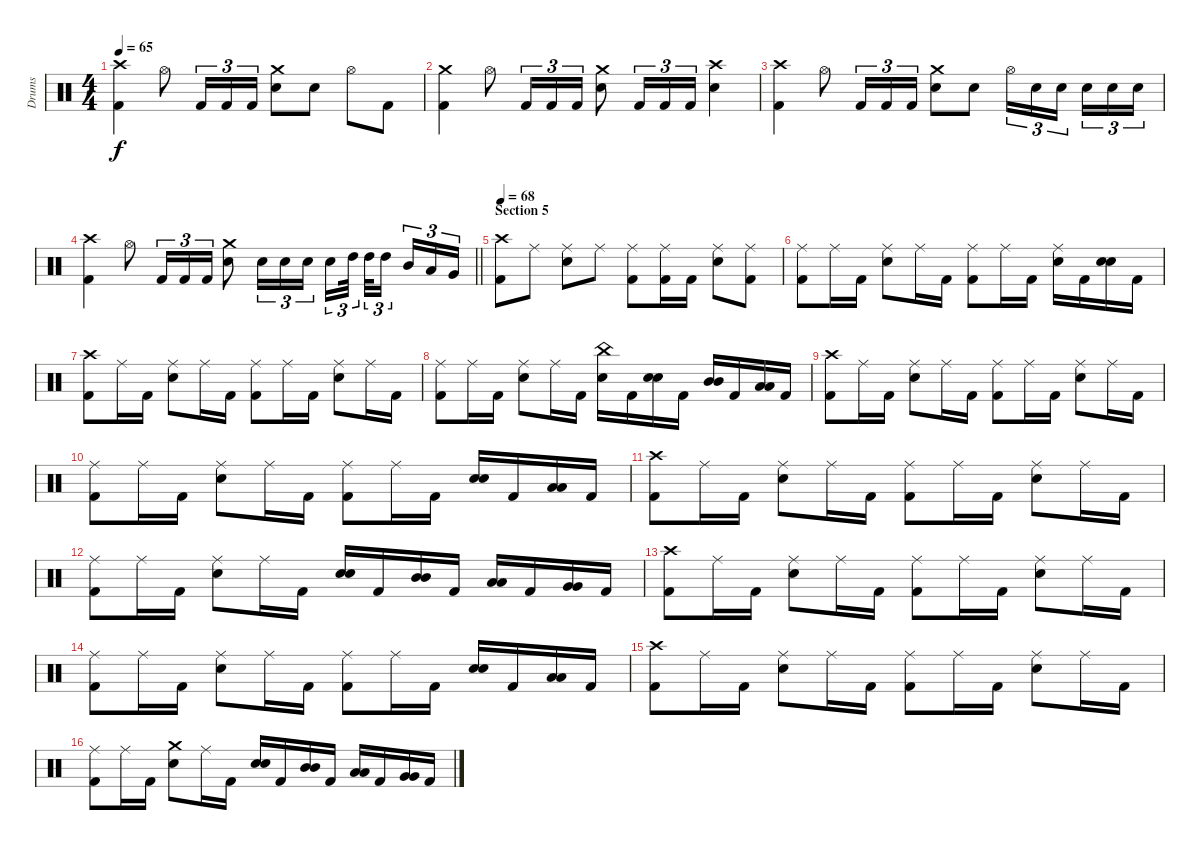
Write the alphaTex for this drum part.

\track ("Drums" "Drums") {instrument percussion}
\staff {score}
\articulation defaults
\ts (4 4)
\tempo 65
\clef neutral
\ks c
("Crash high (hit)" "Kick (hit) 2").4{dy f} "Hi-Hat (open)".8 "Kick (hit) 2".16{tu (3 2)} "Kick (hit) 2".16{tu (3 2)} "Kick (hit) 2".16{tu (3 2)} ("Crash medium (hit)" "Electric Snare (hit)").8 "Electric Snare (hit)".8 "Hi-Hat (open)".8 "Kick (hit) 2".8 |
("Crash medium (hit)" "Kick (hit) 2").4 "Hi-Hat (open)".8 "Kick (hit) 2".16{tu (3 2)} "Kick (hit) 2".16{tu (3 2)} "Kick (hit) 2".16{tu (3 2)} ("Crash medium (hit)" "Electric Snare (hit)").8 "Kick (hit) 2".16{tu (3 2)} "Kick (hit) 2".16{tu (3 2)} "Kick (hit) 2".16{tu (3 2)} ("Crash high (hit)" "Electric Snare (hit)").4 |
("Crash high (hit)" "Kick (hit) 2").4 "Hi-Hat (open)".8 "Kick (hit) 2".16{tu (3 2)} "Kick (hit) 2".16{tu (3 2)} "Kick (hit) 2".16{tu (3 2)} ("Crash medium (hit)" "Electric Snare (hit)").8 "Electric Snare (hit)".8 "Hi-Hat (open)".16{tu (3 2)} "Electric Snare (hit)".16{tu (3 2)} "Electric Snare (hit)".16{tu (3 2) beam splitsecondary} "Electric Snare (hit)".16{tu (3 2)} "Electric Snare (hit)".16{tu (3 2)} "Electric Snare (hit)".16{tu (3 2)} |
\barLineRight lightlight
("Crash high (hit)" "Kick (hit) 2").4 "Hi-Hat (open)".8 "Kick (hit) 2".16{tu (3 2)} "Kick (hit) 2".16{tu (3 2)} "Kick (hit) 2".16{tu (3 2)} ("Crash medium (hit)" "Electric Snare (hit)").8 "Electric Snare (hit)".16{tu (3 2)} "Electric Snare (hit)".16{tu (3 2)} "Electric Snare (hit)".16{tu (3 2)} "Electric Snare (hit)".16{tu (3 2)} "High Tom (hit)".32{tu (3 2) beam splitsecondary} "High Tom (hit)".32{tu (3 2)} "High Tom (hit)".16{tu (3 2) beam splitsecondary} "Mid Tom (hit)".16{tu (3 2)} "Low Tom (hit)".16{tu (3 2)} "Very Low Tom (hit)".16{tu (3 2)} |
\section ("" "Section 5")
\tempo 68
("Crash high (hit)" "Kick (hit) 2").8 "Ride (middle)".8 ("Ride (middle)" "Electric Snare (hit)").8 "Ride (middle)".8 ("Ride (middle)" "Kick (hit) 2").8 ("Ride (middle)" "Kick (hit) 2").16 "Kick (hit) 2".16 ("Ride (middle)" "Electric Snare (hit)").8 ("Ride (middle)" "Kick (hit) 2").8 |
("Ride (middle)" "Kick (hit) 2").8 "Ride (middle)".16 "Kick (hit) 2".16 ("Ride (middle)" "Electric Snare (hit)").8 "Ride (middle)".16 "Kick (hit) 2".16 ("Ride (middle)" "Kick (hit) 2").8 "Ride (middle)".16 "Kick (hit) 2".16 ("Ride (middle)" "Electric Snare (hit)").16 "Kick (hit) 2".16 ("Electric Snare (hit)" "Electric Snare (hit)").16{bu 60} "Kick (hit) 2".16 |
("Crash high (hit)" "Kick (hit) 2").8 "Ride (middle)".16 "Kick (hit) 2".16 ("Ride (middle)" "Electric Snare (hit)").8 "Ride (middle)".16 "Kick (hit) 2".16 ("Ride (middle)" "Kick (hit) 2").8 "Ride (middle)".16 "Kick (hit) 2".16 ("Ride (middle)" "Electric Snare (hit)").8 "Ride (middle)".16 "Kick (hit) 2".16 |
("Ride (middle)" "Kick (hit) 2").8 "Ride (middle)".16 "Kick (hit) 2".16 ("Ride (middle)" "Electric Snare (hit)").8 "Ride (middle)".16 "Kick (hit) 2".16 ("China (hit)" "Electric Snare (hit)").16 "Kick (hit) 2".16 ("Electric Snare (hit)" "Electric Snare (hit)").16{bu 60} "Kick (hit) 2".16 ("Mid Tom (hit)" "Mid Tom (hit)").16{bu 60} "Kick (hit) 2".16 ("Low Tom (hit)" "Low Tom (hit)").16{bu 60} "Kick (hit) 2".16 |
("Crash high (hit)" "Kick (hit) 2").8 "Ride (middle)".16 "Kick (hit) 2".16 ("Ride (middle)" "Electric Snare (hit)").8 "Ride (middle)".16 "Kick (hit) 2".16 ("Ride (middle)" "Kick (hit) 2").8 "Ride (middle)".16 "Kick (hit) 2".16 ("Ride (middle)" "Electric Snare (hit)").8 "Ride (middle)".16 "Kick (hit) 2".16 |
("Ride (middle)" "Kick (hit) 2").8 "Ride (middle)".16 "Kick (hit) 2".16 ("Ride (middle)" "Electric Snare (hit)").8 "Ride (middle)".16 "Kick (hit) 2".16 ("Ride (middle)" "Kick (hit) 2").8 "Ride (middle)".16 "Kick (hit) 2".16 ("Electric Snare (hit)" "Electric Snare (hit)").16{bu 60} "Kick (hit) 2".16 ("Low Tom (hit)" "Low Tom (hit)").16{bu 60} "Kick (hit) 2".16 |
("Crash high (hit)" "Kick (hit) 2").8 "Ride (middle)".16 "Kick (hit) 2".16 ("Ride (middle)" "Electric Snare (hit)").8 "Ride (middle)".16 "Kick (hit) 2".16 ("Ride (middle)" "Kick (hit) 2").8 "Ride (middle)".16 "Kick (hit) 2".16 ("Ride (middle)" "Electric Snare (hit)").8 "Ride (middle)".16 "Kick (hit) 2".16 |
("Ride (middle)" "Kick (hit) 2").8 "Ride (middle)".16 "Kick (hit) 2".16 ("Ride (middle)" "Electric Snare (hit)").8 "Ride (middle)".16 "Kick (hit) 2".16 ("Electric Snare (hit)" "Electric Snare (hit)").16{bu 60} "Kick (hit) 2".16 ("Mid Tom (hit)" "Mid Tom (hit)").16{bu 60} "Kick (hit) 2".16 ("Low Tom (hit)" "Low Tom (hit)").16{bu 60} "Kick (hit) 2".16 ("Very Low Tom (hit)" "Very Low Tom (hit)").16{bu 60} "Kick (hit) 2".16 |
("Crash high (hit)" "Kick (hit) 2").8 "Ride (middle)".16 "Kick (hit) 2".16 ("Ride (middle)" "Electric Snare (hit)").8 "Ride (middle)".16 "Kick (hit) 2".16 ("Ride (middle)" "Kick (hit) 2").8 "Ride (middle)".16 "Kick (hit) 2".16 ("Ride (middle)" "Electric Snare (hit)").8 "Ride (middle)".16 "Kick (hit) 2".16 |
("Ride (middle)" "Kick (hit) 2").8 "Ride (middle)".16 "Kick (hit) 2".16 ("Ride (middle)" "Electric Snare (hit)").8 "Ride (middle)".16 "Kick (hit) 2".16 ("Ride (middle)" "Kick (hit) 2").8 "Ride (middle)".16 "Kick (hit) 2".16 ("Electric Snare (hit)" "Electric Snare (hit)").16{bu 60} "Kick (hit) 2".16 ("Low Tom (hit)" "Low Tom (hit)").16{bu 60} "Kick (hit) 2".16 |
("Crash high (hit)" "Kick (hit) 2").8 "Ride (middle)".16 "Kick (hit) 2".16 ("Ride (middle)" "Electric Snare (hit)").8 "Ride (middle)".16 "Kick (hit) 2".16 ("Ride (middle)" "Kick (hit) 2").8 "Ride (middle)".16 "Kick (hit) 2".16 ("Ride (middle)" "Electric Snare (hit)").8 "Ride (middle)".16 "Kick (hit) 2".16 |
("Ride (middle)" "Kick (hit) 2").8 "Ride (middle)".16 "Kick (hit) 2".16 ("Crash medium (hit)" "Electric Snare (hit)").8 "Ride (middle)".16 "Kick (hit) 2".16 ("Electric Snare (hit)" "Electric Snare (hit)").16{bu 60} "Kick (hit) 2".16 ("Mid Tom (hit)" "Mid Tom (hit)").16{bu 60} "Kick (hit) 2".16 ("Low Tom (hit)" "Low Tom (hit)").16{bu 60} "Kick (hit) 2".16 ("Very Low Tom (hit)" "Very Low Tom (hit)").16{bu 60} "Kick (hit) 2".16
